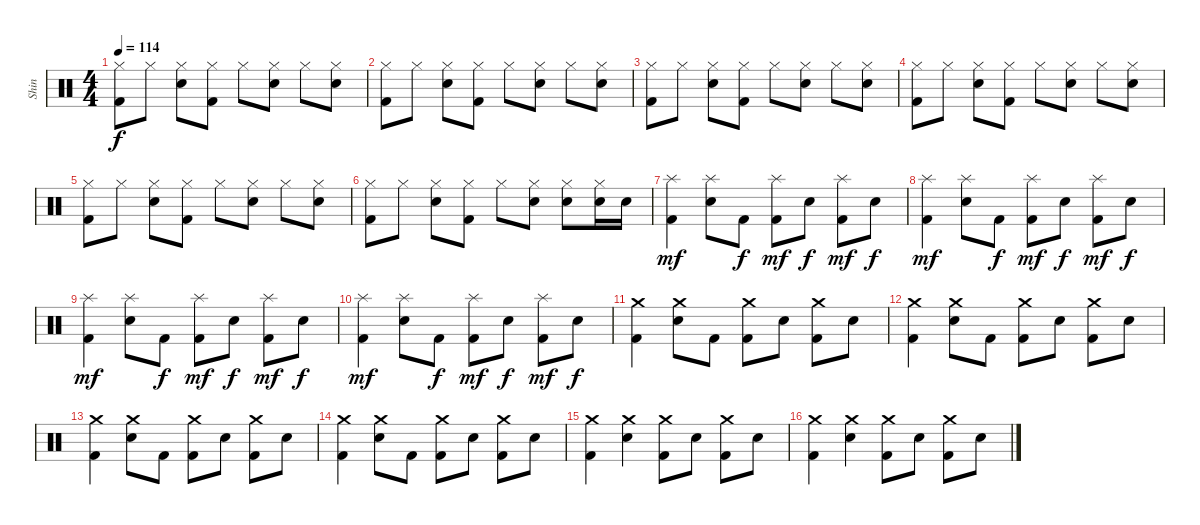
\track ("Shin" "Shin") {instrument percussion}
\staff {score}
\articulation defaults
\ts (4 4)
\tempo 114
\clef neutral
\ks c
("Hi-Hat (closed)" "Kick (hit) 2").8{dy f} "Hi-Hat (closed)".8 ("Hi-Hat (closed)" "Electric Snare (hit)").8 ("Hi-Hat (closed)" "Kick (hit) 2").8 "Hi-Hat (closed)".8 ("Hi-Hat (closed)" "Electric Snare (hit)").8 "Hi-Hat (closed)".8 ("Hi-Hat (closed)" "Electric Snare (hit)").8 |
("Hi-Hat (closed)" "Kick (hit) 2").8 "Hi-Hat (closed)".8 ("Hi-Hat (closed)" "Electric Snare (hit)").8 ("Hi-Hat (closed)" "Kick (hit) 2").8 "Hi-Hat (closed)".8 ("Hi-Hat (closed)" "Electric Snare (hit)").8 "Hi-Hat (closed)".8 ("Hi-Hat (closed)" "Electric Snare (hit)").8 |
("Hi-Hat (closed)" "Kick (hit) 2").8 "Hi-Hat (closed)".8 ("Hi-Hat (closed)" "Electric Snare (hit)").8 ("Hi-Hat (closed)" "Kick (hit) 2").8 "Hi-Hat (closed)".8 ("Hi-Hat (closed)" "Electric Snare (hit)").8 "Hi-Hat (closed)".8 ("Hi-Hat (closed)" "Electric Snare (hit)").8 |
("Hi-Hat (closed)" "Kick (hit) 2").8 "Hi-Hat (closed)".8 ("Hi-Hat (closed)" "Electric Snare (hit)").8 ("Hi-Hat (closed)" "Kick (hit) 2").8 "Hi-Hat (closed)".8 ("Hi-Hat (closed)" "Electric Snare (hit)").8 "Hi-Hat (closed)".8 ("Hi-Hat (closed)" "Electric Snare (hit)").8 |
("Hi-Hat (closed)" "Kick (hit) 2").8 "Hi-Hat (closed)".8 ("Hi-Hat (closed)" "Electric Snare (hit)").8 ("Hi-Hat (closed)" "Kick (hit) 2").8 "Hi-Hat (closed)".8 ("Hi-Hat (closed)" "Electric Snare (hit)").8 "Hi-Hat (closed)".8 ("Hi-Hat (closed)" "Electric Snare (hit)").8 |
("Hi-Hat (closed)" "Kick (hit) 2").8 "Hi-Hat (closed)".8 ("Hi-Hat (closed)" "Electric Snare (hit)").8 ("Hi-Hat (closed)" "Kick (hit) 2").8 "Hi-Hat (closed)".8 ("Hi-Hat (closed)" "Electric Snare (hit)").8 ("Hi-Hat (closed)" "Electric Snare (hit)").8 ("Hi-Hat (closed)" "Electric Snare (hit)").16 "Electric Snare (hit)".16 |
("Splash (hit)" "Kick (hit) 2").4{dy mf} ("Splash (hit)" "Electric Snare (hit)").8 "Kick (hit) 2".8{dy f} ("Splash (hit)" "Kick (hit) 2").8{dy mf} "Electric Snare (hit)".8{dy f} ("Splash (hit)" "Kick (hit) 2").8{dy mf} "Electric Snare (hit)".8{dy f} |
("Splash (hit)" "Kick (hit) 2").4{dy mf} ("Splash (hit)" "Electric Snare (hit)").8 "Kick (hit) 2".8{dy f} ("Splash (hit)" "Kick (hit) 2").8{dy mf} "Electric Snare (hit)".8{dy f} ("Splash (hit)" "Kick (hit) 2").8{dy mf} "Electric Snare (hit)".8{dy f} |
("Splash (hit)" "Kick (hit) 2").4{dy mf} ("Splash (hit)" "Electric Snare (hit)").8 "Kick (hit) 2".8{dy f} ("Splash (hit)" "Kick (hit) 2").8{dy mf} "Electric Snare (hit)".8{dy f} ("Splash (hit)" "Kick (hit) 2").8{dy mf} "Electric Snare (hit)".8{dy f} |
("Splash (hit)" "Kick (hit) 2").4{dy mf} ("Splash (hit)" "Electric Snare (hit)").8 "Kick (hit) 2".8{dy f} ("Splash (hit)" "Kick (hit) 2").8{dy mf} "Electric Snare (hit)".8{dy f} ("Splash (hit)" "Kick (hit) 2").8{dy mf} "Electric Snare (hit)".8{dy f} |
("Crash medium (hit)" "Kick (hit) 2").4 ("Crash medium (hit)" "Electric Snare (hit)").8 "Kick (hit) 2".8 ("Crash medium (hit)" "Kick (hit) 2").8 "Electric Snare (hit)".8 ("Crash medium (hit)" "Kick (hit) 2").8 "Electric Snare (hit)".8 |
("Crash medium (hit)" "Kick (hit) 2").4 ("Crash medium (hit)" "Electric Snare (hit)").8 "Kick (hit) 2".8 ("Crash medium (hit)" "Kick (hit) 2").8 "Electric Snare (hit)".8 ("Crash medium (hit)" "Kick (hit) 2").8 "Electric Snare (hit)".8 |
("Crash medium (hit)" "Kick (hit) 2").4 ("Crash medium (hit)" "Electric Snare (hit)").8 "Kick (hit) 2".8 ("Crash medium (hit)" "Kick (hit) 2").8 "Electric Snare (hit)".8 ("Crash medium (hit)" "Kick (hit) 2").8 "Electric Snare (hit)".8 |
("Crash medium (hit)" "Kick (hit) 2").4 ("Crash medium (hit)" "Electric Snare (hit)").8 "Kick (hit) 2".8 ("Crash medium (hit)" "Kick (hit) 2").8 "Electric Snare (hit)".8 ("Crash medium (hit)" "Kick (hit) 2").8 "Electric Snare (hit)".8 |
("Crash medium (hit)" "Kick (hit) 2").4 ("Crash medium (hit)" "Electric Snare (hit)").4 ("Crash medium (hit)" "Kick (hit) 2").8 "Electric Snare (hit)".8 ("Crash medium (hit)" "Kick (hit) 2").8 "Electric Snare (hit)".8 |
("Crash medium (hit)" "Kick (hit) 2").4 ("Crash medium (hit)" "Electric Snare (hit)").4 ("Crash medium (hit)" "Kick (hit) 2").8 "Electric Snare (hit)".8 ("Crash medium (hit)" "Kick (hit) 2").8 "Electric Snare (hit)".8
